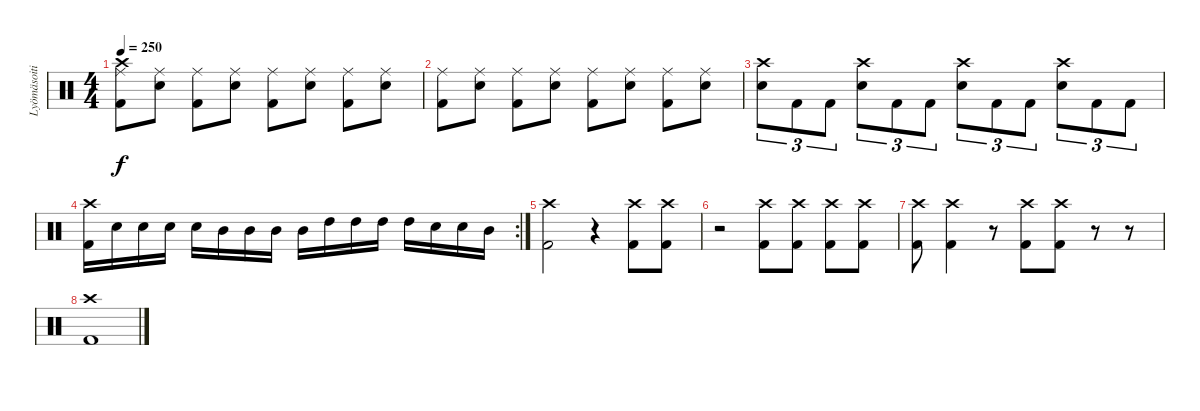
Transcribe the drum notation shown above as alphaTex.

\track ("Lyömäsoitin" "Lyömäsoiti") {instrument percussion}
\staff {score}
\articulation defaults
\ts (4 4)
\tempo 250
\clef neutral
\ks c
("Crash high (hit)" "Ride (middle)" "Kick (hit) 2").8{dy f} ("Ride (middle)" "Electric Snare (hit)").8 ("Ride (middle)" "Kick (hit) 2").8 ("Ride (middle)" "Electric Snare (hit)").8 ("Ride (middle)" "Kick (hit) 2").8 ("Ride (middle)" "Electric Snare (hit)").8 ("Ride (middle)" "Kick (hit) 2").8 ("Ride (middle)" "Electric Snare (hit)").8 |
("Ride (middle)" "Kick (hit) 2").8 ("Ride (middle)" "Electric Snare (hit)").8 ("Ride (middle)" "Kick (hit) 2").8 ("Ride (middle)" "Electric Snare (hit)").8 ("Ride (middle)" "Kick (hit) 2").8 ("Ride (middle)" "Electric Snare (hit)").8 ("Ride (middle)" "Kick (hit) 2").8 ("Ride (middle)" "Electric Snare (hit)").8 |
("Crash high (hit)" "Electric Snare (hit)").8{tu (3 2)} "Kick (hit) 2".8{tu (3 2)} "Kick (hit) 2".8{tu (3 2)} ("Crash high (hit)" "Electric Snare (hit)").8{tu (3 2)} "Kick (hit) 2".8{tu (3 2)} "Kick (hit) 2".8{tu (3 2)} ("Crash high (hit)" "Electric Snare (hit)").8{tu (3 2)} "Kick (hit) 2".8{tu (3 2)} "Kick (hit) 2".8{tu (3 2)} ("Crash high (hit)" "Electric Snare (hit)").8{tu (3 2)} "Kick (hit) 2".8{tu (3 2)} "Kick (hit) 2".8{tu (3 2)} |
\rc 2
("Crash high (hit)" "Kick (hit) 2").16 "Electric Snare (hit)".16 "Electric Snare (hit)".16 "Electric Snare (hit)".16 "Electric Snare (hit)".16 "Mid Tom (hit)".16 "Mid Tom (hit)".16 "Mid Tom (hit)".16 "Mid Tom (hit)".16 "High Tom (hit)".16 "High Tom (hit)".16 "High Tom (hit)".16 "High Tom (hit)".16 "Electric Snare (hit)".16 "Electric Snare (hit)".16 "Mid Tom (hit)".16 |
("Crash high (hit)" "Kick (hit) 2").2 r.4 ("Crash high (hit)" "Kick (hit) 2").8 ("Crash high (hit)" "Kick (hit) 2").8 |
r.2 ("Crash high (hit)" "Kick (hit) 2").8 ("Crash high (hit)" "Kick (hit) 2").8 ("Crash high (hit)" "Kick (hit) 2").8 ("Crash high (hit)" "Kick (hit) 2").8 |
("Crash high (hit)" "Kick (hit) 2").8 ("Crash high (hit)" "Kick (hit) 2").4 r.8 ("Crash high (hit)" "Kick (hit) 2").8 ("Crash high (hit)" "Kick (hit) 2").8 r.8 r.8 |
("Crash high (hit)" "Kick (hit) 2").1
